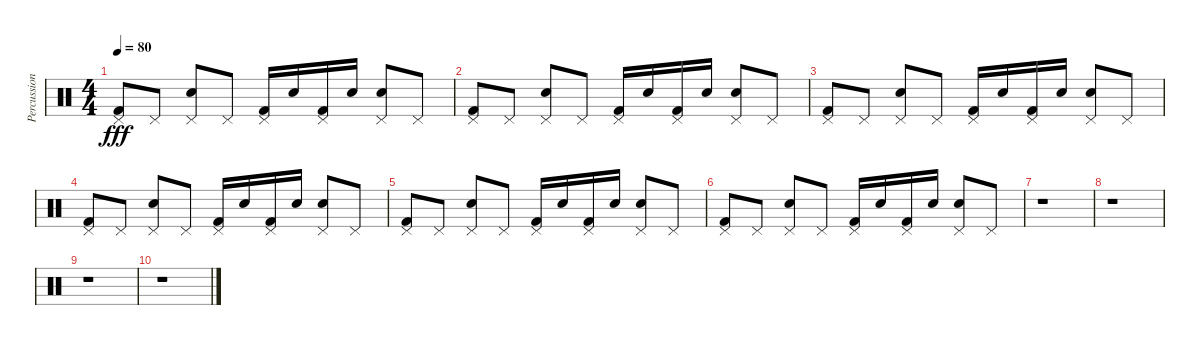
\track ("Percussions" "Percussion") {instrument percussion}
\staff {score}
\articulation defaults
\ts (4 4)
\tempo 80
\clef neutral
\ks c
("Pedal Hi-Hat (hit)" "Kick (hit) 2").8{dy fff} "Pedal Hi-Hat (hit)".8 ("Pedal Hi-Hat (hit)" "Electric Snare (hit)").8 "Pedal Hi-Hat (hit)".8 ("Pedal Hi-Hat (hit)" "Kick (hit) 2").16 "Electric Snare (hit)".16 ("Pedal Hi-Hat (hit)" "Kick (hit) 2").16 "Electric Snare (hit)".16 ("Pedal Hi-Hat (hit)" "Electric Snare (hit)").8 "Pedal Hi-Hat (hit)".8 |
("Pedal Hi-Hat (hit)" "Kick (hit) 2").8 "Pedal Hi-Hat (hit)".8 ("Pedal Hi-Hat (hit)" "Electric Snare (hit)").8 "Pedal Hi-Hat (hit)".8 ("Pedal Hi-Hat (hit)" "Kick (hit) 2").16 "Electric Snare (hit)".16 ("Pedal Hi-Hat (hit)" "Kick (hit) 2").16 "Electric Snare (hit)".16 ("Pedal Hi-Hat (hit)" "Electric Snare (hit)").8 "Pedal Hi-Hat (hit)".8 |
("Pedal Hi-Hat (hit)" "Kick (hit) 2").8 "Pedal Hi-Hat (hit)".8 ("Pedal Hi-Hat (hit)" "Electric Snare (hit)").8 "Pedal Hi-Hat (hit)".8 ("Pedal Hi-Hat (hit)" "Kick (hit) 2").16 "Electric Snare (hit)".16 ("Pedal Hi-Hat (hit)" "Kick (hit) 2").16 "Electric Snare (hit)".16 ("Pedal Hi-Hat (hit)" "Electric Snare (hit)").8 "Pedal Hi-Hat (hit)".8 |
("Pedal Hi-Hat (hit)" "Kick (hit) 2").8 "Pedal Hi-Hat (hit)".8 ("Pedal Hi-Hat (hit)" "Electric Snare (hit)").8 "Pedal Hi-Hat (hit)".8 ("Pedal Hi-Hat (hit)" "Kick (hit) 2").16 "Electric Snare (hit)".16 ("Pedal Hi-Hat (hit)" "Kick (hit) 2").16 "Electric Snare (hit)".16 ("Pedal Hi-Hat (hit)" "Electric Snare (hit)").8 "Pedal Hi-Hat (hit)".8 |
("Pedal Hi-Hat (hit)" "Kick (hit) 2").8 "Pedal Hi-Hat (hit)".8 ("Pedal Hi-Hat (hit)" "Electric Snare (hit)").8 "Pedal Hi-Hat (hit)".8 ("Pedal Hi-Hat (hit)" "Kick (hit) 2").16 "Electric Snare (hit)".16 ("Pedal Hi-Hat (hit)" "Kick (hit) 2").16 "Electric Snare (hit)".16 ("Pedal Hi-Hat (hit)" "Electric Snare (hit)").8 "Pedal Hi-Hat (hit)".8 |
("Pedal Hi-Hat (hit)" "Kick (hit) 2").8 "Pedal Hi-Hat (hit)".8 ("Pedal Hi-Hat (hit)" "Electric Snare (hit)").8 "Pedal Hi-Hat (hit)".8 ("Pedal Hi-Hat (hit)" "Kick (hit) 2").16 "Electric Snare (hit)".16 ("Pedal Hi-Hat (hit)" "Kick (hit) 2").16 "Electric Snare (hit)".16 ("Pedal Hi-Hat (hit)" "Electric Snare (hit)").8 "Pedal Hi-Hat (hit)".8 |
r.1 |
r.1 |
r.1 |
r.1
